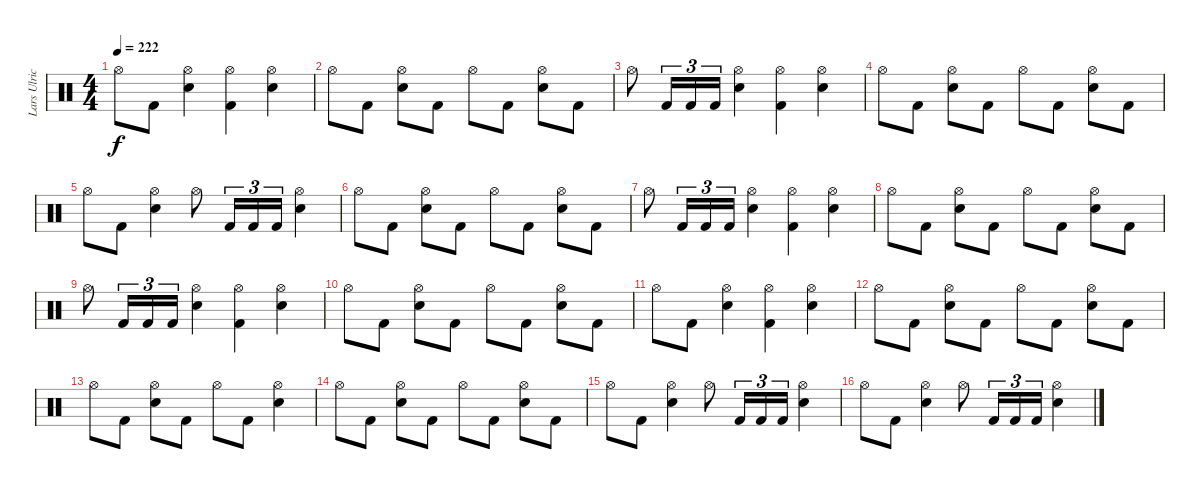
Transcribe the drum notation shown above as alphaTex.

\track ("Lars Ulrich" "Lars Ulric") {instrument percussion}
\staff {score}
\articulation defaults
\ts (4 4)
\tempo 222
\clef neutral
\ks c "Hi-Hat (open)".8{dy f} "Kick (hit) 2".8
("Hi-Hat (open)" "Electric Snare (hit)").4 ("Hi-Hat (open)" "Kick (hit) 2").4 ("Hi-Hat (open)" "Electric Snare (hit)").4 |
"Hi-Hat (open)".8 "Kick (hit) 2".8 ("Hi-Hat (open)" "Electric Snare (hit)").8 "Kick (hit) 2".8 "Hi-Hat (open)".8 "Kick (hit) 2".8 ("Hi-Hat (open)" "Electric Snare (hit)").8 "Kick (hit) 2".8 |
"Hi-Hat (open)".8 "Kick (hit) 2".16{tu (3 2)} "Kick (hit) 2".16{tu (3 2)} "Kick (hit) 2".16{tu (3 2)} ("Hi-Hat (open)" "Electric Snare (hit)").4 ("Hi-Hat (open)" "Kick (hit) 2").4 ("Hi-Hat (open)" "Electric Snare (hit)").4 |
"Hi-Hat (open)".8 "Kick (hit) 2".8 ("Hi-Hat (open)" "Electric Snare (hit)").8 "Kick (hit) 2".8 "Hi-Hat (open)".8 "Kick (hit) 2".8 ("Hi-Hat (open)" "Electric Snare (hit)").8 "Kick (hit) 2".8 |
"Hi-Hat (open)".8 "Kick (hit) 2".8 ("Hi-Hat (open)" "Electric Snare (hit)").4 "Hi-Hat (open)".8 "Kick (hit) 2".16{tu (3 2)} "Kick (hit) 2".16{tu (3 2)} "Kick (hit) 2".16{tu (3 2)} ("Hi-Hat (open)" "Electric Snare (hit)").4 |
"Hi-Hat (open)".8 "Kick (hit) 2".8 ("Hi-Hat (open)" "Electric Snare (hit)").8 "Kick (hit) 2".8 "Hi-Hat (open)".8 "Kick (hit) 2".8 ("Hi-Hat (open)" "Electric Snare (hit)").8 "Kick (hit) 2".8 |
"Hi-Hat (open)".8 "Kick (hit) 2".16{tu (3 2)} "Kick (hit) 2".16{tu (3 2)} "Kick (hit) 2".16{tu (3 2)} ("Hi-Hat (open)" "Electric Snare (hit)").4 ("Hi-Hat (open)" "Kick (hit) 2").4 ("Hi-Hat (open)" "Electric Snare (hit)").4 |
"Hi-Hat (open)".8 "Kick (hit) 2".8 ("Hi-Hat (open)" "Electric Snare (hit)").8 "Kick (hit) 2".8 "Hi-Hat (open)".8 "Kick (hit) 2".8 ("Hi-Hat (open)" "Electric Snare (hit)").8 "Kick (hit) 2".8 |
"Hi-Hat (open)".8 "Kick (hit) 2".16{tu (3 2)} "Kick (hit) 2".16{tu (3 2)} "Kick (hit) 2".16{tu (3 2)} ("Hi-Hat (open)" "Electric Snare (hit)").4 ("Hi-Hat (open)" "Kick (hit) 2").4 ("Hi-Hat (open)" "Electric Snare (hit)").4 |
"Hi-Hat (open)".8 "Kick (hit) 2".8 ("Hi-Hat (open)" "Electric Snare (hit)").8 "Kick (hit) 2".8 "Hi-Hat (open)".8 "Kick (hit) 2".8 ("Hi-Hat (open)" "Electric Snare (hit)").8 "Kick (hit) 2".8 |
"Hi-Hat (open)".8 "Kick (hit) 2".8 ("Hi-Hat (open)" "Electric Snare (hit)").4 ("Hi-Hat (open)" "Kick (hit) 2").4 ("Hi-Hat (open)" "Electric Snare (hit)").4 |
"Hi-Hat (open)".8 "Kick (hit) 2".8 ("Hi-Hat (open)" "Electric Snare (hit)").8 "Kick (hit) 2".8 "Hi-Hat (open)".8 "Kick (hit) 2".8 ("Hi-Hat (open)" "Electric Snare (hit)").8 "Kick (hit) 2".8 |
"Hi-Hat (open)".8 "Kick (hit) 2".8 ("Hi-Hat (open)" "Electric Snare (hit)").8 "Kick (hit) 2".8 "Hi-Hat (open)".8 "Kick (hit) 2".8 ("Hi-Hat (open)" "Electric Snare (hit)").4 |
"Hi-Hat (open)".8 "Kick (hit) 2".8 ("Hi-Hat (open)" "Electric Snare (hit)").8 "Kick (hit) 2".8 "Hi-Hat (open)".8 "Kick (hit) 2".8 ("Hi-Hat (open)" "Electric Snare (hit)").8 "Kick (hit) 2".8 |
"Hi-Hat (open)".8 "Kick (hit) 2".8 ("Hi-Hat (open)" "Electric Snare (hit)").4 "Hi-Hat (open)".8 "Kick (hit) 2".16{tu (3 2)} "Kick (hit) 2".16{tu (3 2)} "Kick (hit) 2".16{tu (3 2)} ("Hi-Hat (open)" "Electric Snare (hit)").4 |
"Hi-Hat (open)".8 "Kick (hit) 2".8 ("Hi-Hat (open)" "Electric Snare (hit)").4 "Hi-Hat (open)".8 "Kick (hit) 2".16{tu (3 2)} "Kick (hit) 2".16{tu (3 2)} "Kick (hit) 2".16{tu (3 2)} ("Hi-Hat (open)" "Electric Snare (hit)").4
